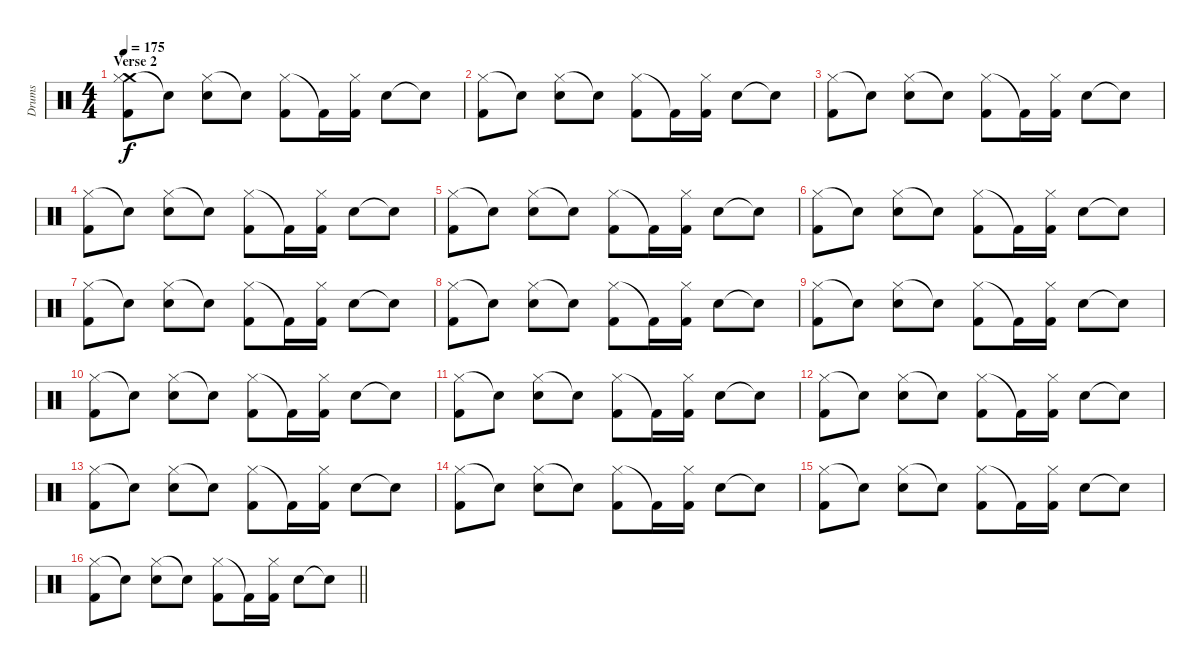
\track ("Drums" "Drums") {instrument percussion}
\staff {score}
\articulation defaults
\ts (4 4)
\section ("" "Verse 2")
\tempo 175
\clef neutral
\ks c
("Crash medium (hit)" "Hi-Hat (closed)" "Kick (hit) 2").8{dy f} "Snare (hit)"{t}.8 ("Hi-Hat (closed)" "Electric Snare (hit)").8 "Snare (hit)"{t}.8 ("Hi-Hat (closed)" "Kick (hit) 2").8 "Kick (hit) 2"{t}.16 ("Hi-Hat (closed)" "Kick (hit) 2").16 "Electric Snare (hit)".8 "Snare (hit)"{t}.8 |
("Hi-Hat (closed)" "Kick (hit) 2").8 "Snare (hit)"{t}.8 ("Hi-Hat (closed)" "Electric Snare (hit)").8 "Snare (hit)"{t}.8 ("Hi-Hat (closed)" "Kick (hit) 2").8 "Kick (hit) 2"{t}.16 ("Hi-Hat (closed)" "Kick (hit) 2").16 "Electric Snare (hit)".8 "Snare (hit)"{t}.8 |
("Hi-Hat (closed)" "Kick (hit) 2").8 "Snare (hit)"{t}.8 ("Hi-Hat (closed)" "Electric Snare (hit)").8 "Snare (hit)"{t}.8 ("Hi-Hat (closed)" "Kick (hit) 2").8 "Kick (hit) 2"{t}.16 ("Hi-Hat (closed)" "Kick (hit) 2").16 "Electric Snare (hit)".8 "Snare (hit)"{t}.8 |
("Hi-Hat (closed)" "Kick (hit) 2").8 "Snare (hit)"{t}.8 ("Hi-Hat (closed)" "Electric Snare (hit)").8 "Snare (hit)"{t}.8 ("Hi-Hat (closed)" "Kick (hit) 2").8 "Kick (hit) 2"{t}.16 ("Hi-Hat (closed)" "Kick (hit) 2").16 "Electric Snare (hit)".8 "Snare (hit)"{t}.8 |
("Hi-Hat (closed)" "Kick (hit) 2").8 "Snare (hit)"{t}.8 ("Hi-Hat (closed)" "Electric Snare (hit)").8 "Snare (hit)"{t}.8 ("Hi-Hat (closed)" "Kick (hit) 2").8 "Kick (hit) 2"{t}.16 ("Hi-Hat (closed)" "Kick (hit) 2").16 "Electric Snare (hit)".8 "Snare (hit)"{t}.8 |
("Hi-Hat (closed)" "Kick (hit) 2").8 "Snare (hit)"{t}.8 ("Hi-Hat (closed)" "Electric Snare (hit)").8 "Snare (hit)"{t}.8 ("Hi-Hat (closed)" "Kick (hit) 2").8 "Kick (hit) 2"{t}.16 ("Hi-Hat (closed)" "Kick (hit) 2").16 "Electric Snare (hit)".8 "Snare (hit)"{t}.8 |
("Hi-Hat (closed)" "Kick (hit) 2").8 "Snare (hit)"{t}.8 ("Hi-Hat (closed)" "Electric Snare (hit)").8 "Snare (hit)"{t}.8 ("Hi-Hat (closed)" "Kick (hit) 2").8 "Kick (hit) 2"{t}.16 ("Hi-Hat (closed)" "Kick (hit) 2").16 "Electric Snare (hit)".8 "Snare (hit)"{t}.8 |
("Hi-Hat (closed)" "Kick (hit) 2").8 "Snare (hit)"{t}.8 ("Hi-Hat (closed)" "Electric Snare (hit)").8 "Snare (hit)"{t}.8 ("Hi-Hat (closed)" "Kick (hit) 2").8 "Kick (hit) 2"{t}.16 ("Hi-Hat (closed)" "Kick (hit) 2").16 "Electric Snare (hit)".8 "Snare (hit)"{t}.8 |
("Hi-Hat (closed)" "Kick (hit) 2").8 "Snare (hit)"{t}.8 ("Hi-Hat (closed)" "Electric Snare (hit)").8 "Snare (hit)"{t}.8 ("Hi-Hat (closed)" "Kick (hit) 2").8 "Kick (hit) 2"{t}.16 ("Hi-Hat (closed)" "Kick (hit) 2").16 "Electric Snare (hit)".8 "Snare (hit)"{t}.8 |
("Hi-Hat (closed)" "Kick (hit) 2").8 "Snare (hit)"{t}.8 ("Hi-Hat (closed)" "Electric Snare (hit)").8 "Snare (hit)"{t}.8 ("Hi-Hat (closed)" "Kick (hit) 2").8 "Kick (hit) 2"{t}.16 ("Hi-Hat (closed)" "Kick (hit) 2").16 "Electric Snare (hit)".8 "Snare (hit)"{t}.8 |
("Hi-Hat (closed)" "Kick (hit) 2").8 "Snare (hit)"{t}.8 ("Hi-Hat (closed)" "Electric Snare (hit)").8 "Snare (hit)"{t}.8 ("Hi-Hat (closed)" "Kick (hit) 2").8 "Kick (hit) 2"{t}.16 ("Hi-Hat (closed)" "Kick (hit) 2").16 "Electric Snare (hit)".8 "Snare (hit)"{t}.8 |
("Hi-Hat (closed)" "Kick (hit) 2").8 "Snare (hit)"{t}.8 ("Hi-Hat (closed)" "Electric Snare (hit)").8 "Snare (hit)"{t}.8 ("Hi-Hat (closed)" "Kick (hit) 2").8 "Kick (hit) 2"{t}.16 ("Hi-Hat (closed)" "Kick (hit) 2").16 "Electric Snare (hit)".8 "Snare (hit)"{t}.8 |
("Hi-Hat (closed)" "Kick (hit) 2").8 "Snare (hit)"{t}.8 ("Hi-Hat (closed)" "Electric Snare (hit)").8 "Snare (hit)"{t}.8 ("Hi-Hat (closed)" "Kick (hit) 2").8 "Kick (hit) 2"{t}.16 ("Hi-Hat (closed)" "Kick (hit) 2").16 "Electric Snare (hit)".8 "Snare (hit)"{t}.8 |
("Hi-Hat (closed)" "Kick (hit) 2").8 "Snare (hit)"{t}.8 ("Hi-Hat (closed)" "Electric Snare (hit)").8 "Snare (hit)"{t}.8 ("Hi-Hat (closed)" "Kick (hit) 2").8 "Kick (hit) 2"{t}.16 ("Hi-Hat (closed)" "Kick (hit) 2").16 "Electric Snare (hit)".8 "Snare (hit)"{t}.8 |
("Hi-Hat (closed)" "Kick (hit) 2").8 "Snare (hit)"{t}.8 ("Hi-Hat (closed)" "Electric Snare (hit)").8 "Snare (hit)"{t}.8 ("Hi-Hat (closed)" "Kick (hit) 2").8 "Kick (hit) 2"{t}.16 ("Hi-Hat (closed)" "Kick (hit) 2").16 "Electric Snare (hit)".8 "Snare (hit)"{t}.8 |
\barLineRight lightlight
("Hi-Hat (closed)" "Kick (hit) 2").8 "Snare (hit)"{t}.8 ("Hi-Hat (closed)" "Electric Snare (hit)").8 "Snare (hit)"{t}.8 ("Hi-Hat (closed)" "Kick (hit) 2").8 "Kick (hit) 2"{t}.16 ("Hi-Hat (closed)" "Kick (hit) 2").16 "Electric Snare (hit)".8 "Snare (hit)"{t}.8
